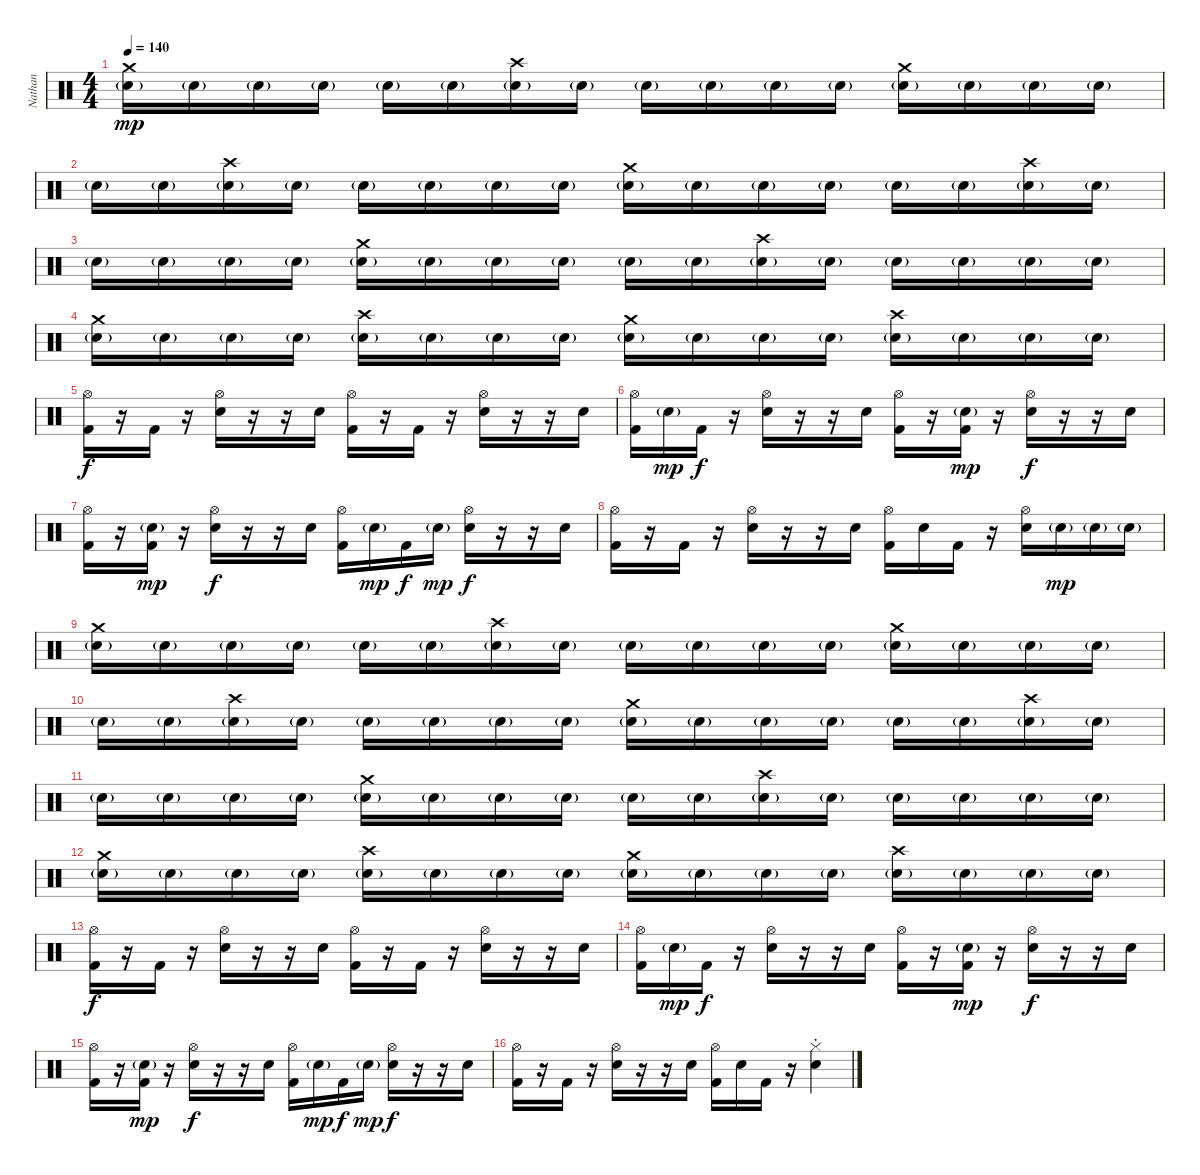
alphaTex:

\track ("Nathan" "Nathan") {instrument percussion}
\staff {score}
\articulation defaults
\ts (4 4)
\tempo 140
\clef neutral
\ks c
("Crash medium (hit)" "Snare (hit) 2"{g}).16{dy mp} "Snare (hit) 2"{g}.16 "Snare (hit) 2"{g}.16 "Snare (hit) 2"{g}.16 "Snare (hit) 2"{g}.16 "Snare (hit) 2"{g}.16 ("Crash high (hit)" "Snare (hit) 2"{g}).16 "Snare (hit) 2"{g}.16 "Snare (hit) 2"{g}.16 "Snare (hit) 2"{g}.16 "Snare (hit) 2"{g}.16 "Snare (hit) 2"{g}.16 ("Crash medium (hit)" "Snare (hit) 2"{g}).16 "Snare (hit) 2"{g}.16 "Snare (hit) 2"{g}.16 "Snare (hit) 2"{g}.16 |
"Snare (hit) 2"{g}.16 "Snare (hit) 2"{g}.16 ("Crash high (hit)" "Snare (hit) 2"{g}).16 "Snare (hit) 2"{g}.16 "Snare (hit) 2"{g}.16 "Snare (hit) 2"{g}.16 "Snare (hit) 2"{g}.16 "Snare (hit) 2"{g}.16 ("Crash medium (hit)" "Snare (hit) 2"{g}).16 "Snare (hit) 2"{g}.16 "Snare (hit) 2"{g}.16 "Snare (hit) 2"{g}.16 "Snare (hit) 2"{g}.16 "Snare (hit) 2"{g}.16 ("Crash high (hit)" "Snare (hit) 2"{g}).16 "Snare (hit) 2"{g}.16 |
"Snare (hit) 2"{g}.16 "Snare (hit) 2"{g}.16 "Snare (hit) 2"{g}.16 "Snare (hit) 2"{g}.16 ("Crash medium (hit)" "Snare (hit) 2"{g}).16 "Snare (hit) 2"{g}.16 "Snare (hit) 2"{g}.16 "Snare (hit) 2"{g}.16 "Snare (hit) 2"{g}.16 "Snare (hit) 2"{g}.16 ("Crash high (hit)" "Snare (hit) 2"{g}).16 "Snare (hit) 2"{g}.16 "Snare (hit) 2"{g}.16 "Snare (hit) 2"{g}.16 "Snare (hit) 2"{g}.16 "Snare (hit) 2"{g}.16 |
("Crash medium (hit)" "Snare (hit) 2"{g}).16 "Snare (hit) 2"{g}.16 "Snare (hit) 2"{g}.16 "Snare (hit) 2"{g}.16 ("Crash high (hit)" "Snare (hit) 2"{g}).16 "Snare (hit) 2"{g}.16 "Snare (hit) 2"{g}.16 "Snare (hit) 2"{g}.16 ("Crash medium (hit)" "Snare (hit) 2"{g}).16 "Snare (hit) 2"{g}.16 "Snare (hit) 2"{g}.16 "Snare (hit) 2"{g}.16 ("Crash high (hit)" "Snare (hit) 2"{g}).16 "Snare (hit) 2"{g}.16 "Snare (hit) 2"{g}.16 "Snare (hit) 2"{g}.16 |
("Hi-Hat (open)" "Kick (hit) 2").16{dy f} r.16 "Kick (hit) 2".16 r.16 ("Hi-Hat (open)" "Snare (hit) 2").16 r.16 r.16 "Snare (hit) 2".16 ("Hi-Hat (open)" "Kick (hit) 2").16 r.16 "Kick (hit) 2".16 r.16 ("Hi-Hat (open)" "Snare (hit) 2").16 r.16 r.16 "Snare (hit) 2".16 |
("Hi-Hat (open)" "Kick (hit) 2").16 "Snare (hit) 2"{g}.16{dy mp} "Kick (hit) 2".16{dy f} r.16 ("Hi-Hat (open)" "Snare (hit) 2").16 r.16 r.16 "Snare (hit) 2".16 ("Hi-Hat (open)" "Kick (hit) 2").16 r.16 ("Snare (hit) 2"{g} "Kick (hit) 2").16{dy mp} r.16 ("Hi-Hat (open)" "Snare (hit) 2").16{dy f} r.16 r.16 "Snare (hit) 2".16 |
("Hi-Hat (open)" "Kick (hit) 2").16 r.16 ("Snare (hit) 2"{g} "Kick (hit) 2").16{dy mp} r.16 ("Hi-Hat (open)" "Snare (hit) 2").16{dy f} r.16 r.16 "Snare (hit) 2".16 ("Hi-Hat (open)" "Kick (hit) 2").16 "Snare (hit) 2"{g}.16{dy mp} "Kick (hit) 2".16{dy f} "Snare (hit) 2"{g}.16{dy mp} ("Hi-Hat (open)" "Snare (hit) 2").16{dy f} r.16 r.16 "Snare (hit) 2".16 |
("Hi-Hat (open)" "Kick (hit) 2").16 r.16 "Kick (hit) 2".16 r.16 ("Hi-Hat (open)" "Snare (hit) 2").16 r.16 r.16 "Snare (hit) 2".16 ("Hi-Hat (open)" "Kick (hit) 2").16 "Snare (hit) 2".16 "Kick (hit) 2".16 r.16 ("Hi-Hat (open)" "Snare (hit) 2").16 "Snare (hit) 2"{g}.16{dy mp} "Snare (hit) 2"{g}.16 "Snare (hit) 2"{g}.16 |
("Crash medium (hit)" "Snare (hit) 2"{g}).16 "Snare (hit) 2"{g}.16 "Snare (hit) 2"{g}.16 "Snare (hit) 2"{g}.16 "Snare (hit) 2"{g}.16 "Snare (hit) 2"{g}.16 ("Crash high (hit)" "Snare (hit) 2"{g}).16 "Snare (hit) 2"{g}.16 "Snare (hit) 2"{g}.16 "Snare (hit) 2"{g}.16 "Snare (hit) 2"{g}.16 "Snare (hit) 2"{g}.16 ("Crash medium (hit)" "Snare (hit) 2"{g}).16 "Snare (hit) 2"{g}.16 "Snare (hit) 2"{g}.16 "Snare (hit) 2"{g}.16 |
"Snare (hit) 2"{g}.16 "Snare (hit) 2"{g}.16 ("Crash high (hit)" "Snare (hit) 2"{g}).16 "Snare (hit) 2"{g}.16 "Snare (hit) 2"{g}.16 "Snare (hit) 2"{g}.16 "Snare (hit) 2"{g}.16 "Snare (hit) 2"{g}.16 ("Crash medium (hit)" "Snare (hit) 2"{g}).16 "Snare (hit) 2"{g}.16 "Snare (hit) 2"{g}.16 "Snare (hit) 2"{g}.16 "Snare (hit) 2"{g}.16 "Snare (hit) 2"{g}.16 ("Crash high (hit)" "Snare (hit) 2"{g}).16 "Snare (hit) 2"{g}.16 |
"Snare (hit) 2"{g}.16 "Snare (hit) 2"{g}.16 "Snare (hit) 2"{g}.16 "Snare (hit) 2"{g}.16 ("Crash medium (hit)" "Snare (hit) 2"{g}).16 "Snare (hit) 2"{g}.16 "Snare (hit) 2"{g}.16 "Snare (hit) 2"{g}.16 "Snare (hit) 2"{g}.16 "Snare (hit) 2"{g}.16 ("Crash high (hit)" "Snare (hit) 2"{g}).16 "Snare (hit) 2"{g}.16 "Snare (hit) 2"{g}.16 "Snare (hit) 2"{g}.16 "Snare (hit) 2"{g}.16 "Snare (hit) 2"{g}.16 |
("Crash medium (hit)" "Snare (hit) 2"{g}).16 "Snare (hit) 2"{g}.16 "Snare (hit) 2"{g}.16 "Snare (hit) 2"{g}.16 ("Crash high (hit)" "Snare (hit) 2"{g}).16 "Snare (hit) 2"{g}.16 "Snare (hit) 2"{g}.16 "Snare (hit) 2"{g}.16 ("Crash medium (hit)" "Snare (hit) 2"{g}).16 "Snare (hit) 2"{g}.16 "Snare (hit) 2"{g}.16 "Snare (hit) 2"{g}.16 ("Crash high (hit)" "Snare (hit) 2"{g}).16 "Snare (hit) 2"{g}.16 "Snare (hit) 2"{g}.16 "Snare (hit) 2"{g}.16 |
("Hi-Hat (open)" "Kick (hit) 2").16{dy f} r.16 "Kick (hit) 2".16 r.16 ("Hi-Hat (open)" "Snare (hit) 2").16 r.16 r.16 "Snare (hit) 2".16 ("Hi-Hat (open)" "Kick (hit) 2").16 r.16 "Kick (hit) 2".16 r.16 ("Hi-Hat (open)" "Snare (hit) 2").16 r.16 r.16 "Snare (hit) 2".16 |
("Hi-Hat (open)" "Kick (hit) 2").16 "Snare (hit) 2"{g}.16{dy mp} "Kick (hit) 2".16{dy f} r.16 ("Hi-Hat (open)" "Snare (hit) 2").16 r.16 r.16 "Snare (hit) 2".16 ("Hi-Hat (open)" "Kick (hit) 2").16 r.16 ("Snare (hit) 2"{g} "Kick (hit) 2").16{dy mp} r.16 ("Hi-Hat (open)" "Snare (hit) 2").16{dy f} r.16 r.16 "Snare (hit) 2".16 |
("Hi-Hat (open)" "Kick (hit) 2").16 r.16 ("Snare (hit) 2"{g} "Kick (hit) 2").16{dy mp} r.16 ("Hi-Hat (open)" "Snare (hit) 2").16{dy f} r.16 r.16 "Snare (hit) 2".16 ("Hi-Hat (open)" "Kick (hit) 2").16 "Snare (hit) 2"{g}.16{dy mp} "Kick (hit) 2".16{dy f} "Snare (hit) 2"{g}.16{dy mp} ("Hi-Hat (open)" "Snare (hit) 2").16{dy f} r.16 r.16 "Snare (hit) 2".16 |
("Hi-Hat (open)" "Kick (hit) 2").16 r.16 "Kick (hit) 2".16 r.16 ("Hi-Hat (open)" "Snare (hit) 2").16 r.16 r.16 "Snare (hit) 2".16 ("Hi-Hat (open)" "Kick (hit) 2").16 "Snare (hit) 2".16 "Kick (hit) 2".16 r.16 ("Hi-Hat (closed)"{st} "Snare (hit) 2"{st}).4
